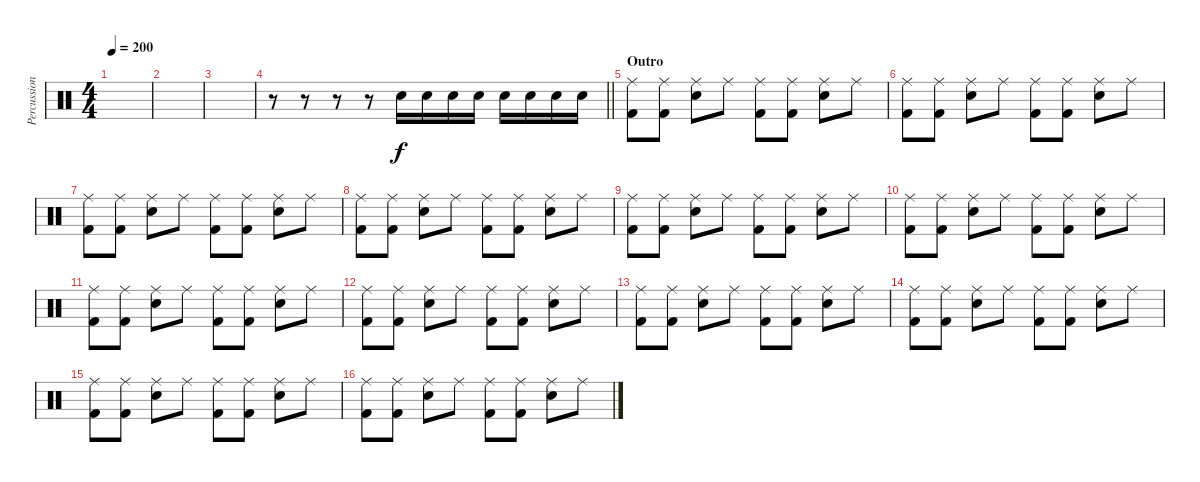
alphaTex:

\track ("Percussion" "Percussion") {instrument percussion}
\staff {score}
\articulation defaults
\ts (4 4)
\tempo 200
\clef neutral
\ks c
|
|
|
\barLineRight lightlight
r.8 r.8 r.8 r.8 "Snare (hit) 2".16 "Snare (hit) 2".16 "Snare (hit) 2".16 "Snare (hit) 2".16 "Snare (hit) 2".16 "Snare (hit) 2".16 "Snare (hit) 2".16 "Snare (hit) 2".16 |
\section ("" "Outro")
("Ride (middle)" "Kick (hit) 2").8 ("Ride (middle)" "Kick (hit) 2").8 ("Ride (middle)" "Snare (hit) 2").8 "Ride (middle)".8 ("Ride (middle)" "Kick (hit) 2").8 ("Ride (middle)" "Kick (hit) 2").8 ("Ride (middle)" "Snare (hit) 2").8 "Ride (middle)".8 |
("Ride (middle)" "Kick (hit) 2").8 ("Ride (middle)" "Kick (hit) 2").8 ("Ride (middle)" "Snare (hit) 2").8 "Ride (middle)".8 ("Ride (middle)" "Kick (hit) 2").8 ("Ride (middle)" "Kick (hit) 2").8 ("Ride (middle)" "Snare (hit) 2").8 "Ride (middle)".8 |
("Ride (middle)" "Kick (hit) 2").8 ("Ride (middle)" "Kick (hit) 2").8 ("Ride (middle)" "Snare (hit) 2").8 "Ride (middle)".8 ("Ride (middle)" "Kick (hit) 2").8 ("Ride (middle)" "Kick (hit) 2").8 ("Ride (middle)" "Snare (hit) 2").8 "Ride (middle)".8 |
("Ride (middle)" "Kick (hit) 2").8 ("Ride (middle)" "Kick (hit) 2").8 ("Ride (middle)" "Snare (hit) 2").8 "Ride (middle)".8 ("Ride (middle)" "Kick (hit) 2").8 ("Ride (middle)" "Kick (hit) 2").8 ("Ride (middle)" "Snare (hit) 2").8 "Ride (middle)".8 |
("Ride (middle)" "Kick (hit) 2").8 ("Ride (middle)" "Kick (hit) 2").8 ("Ride (middle)" "Snare (hit) 2").8 "Ride (middle)".8 ("Ride (middle)" "Kick (hit) 2").8 ("Ride (middle)" "Kick (hit) 2").8 ("Ride (middle)" "Snare (hit) 2").8 "Ride (middle)".8 |
("Ride (middle)" "Kick (hit) 2").8 ("Ride (middle)" "Kick (hit) 2").8 ("Ride (middle)" "Snare (hit) 2").8 "Ride (middle)".8 ("Ride (middle)" "Kick (hit) 2").8 ("Ride (middle)" "Kick (hit) 2").8 ("Ride (middle)" "Snare (hit) 2").8 "Ride (middle)".8 |
("Ride (middle)" "Kick (hit) 2").8 ("Ride (middle)" "Kick (hit) 2").8 ("Ride (middle)" "Snare (hit) 2").8 "Ride (middle)".8 ("Ride (middle)" "Kick (hit) 2").8 ("Ride (middle)" "Kick (hit) 2").8 ("Ride (middle)" "Snare (hit) 2").8 "Ride (middle)".8 |
("Ride (middle)" "Kick (hit) 2").8 ("Ride (middle)" "Kick (hit) 2").8 ("Ride (middle)" "Snare (hit) 2").8 "Ride (middle)".8 ("Ride (middle)" "Kick (hit) 2").8 ("Ride (middle)" "Kick (hit) 2").8 ("Ride (middle)" "Snare (hit) 2").8 "Ride (middle)".8 |
("Ride (middle)" "Kick (hit) 2").8 ("Ride (middle)" "Kick (hit) 2").8 ("Ride (middle)" "Snare (hit) 2").8 "Ride (middle)".8 ("Ride (middle)" "Kick (hit) 2").8 ("Ride (middle)" "Kick (hit) 2").8 ("Ride (middle)" "Snare (hit) 2").8 "Ride (middle)".8 |
("Ride (middle)" "Kick (hit) 2").8 ("Ride (middle)" "Kick (hit) 2").8 ("Ride (middle)" "Snare (hit) 2").8 "Ride (middle)".8 ("Ride (middle)" "Kick (hit) 2").8 ("Ride (middle)" "Kick (hit) 2").8 ("Ride (middle)" "Snare (hit) 2").8 "Ride (middle)".8 |
("Ride (middle)" "Kick (hit) 2").8 ("Ride (middle)" "Kick (hit) 2").8 ("Ride (middle)" "Snare (hit) 2").8 "Ride (middle)".8 ("Ride (middle)" "Kick (hit) 2").8 ("Ride (middle)" "Kick (hit) 2").8 ("Ride (middle)" "Snare (hit) 2").8 "Ride (middle)".8 |
("Ride (middle)" "Kick (hit) 2").8 ("Ride (middle)" "Kick (hit) 2").8 ("Ride (middle)" "Snare (hit) 2").8 "Ride (middle)".8 ("Ride (middle)" "Kick (hit) 2").8 ("Ride (middle)" "Kick (hit) 2").8 ("Ride (middle)" "Snare (hit) 2").8 "Ride (middle)".8
